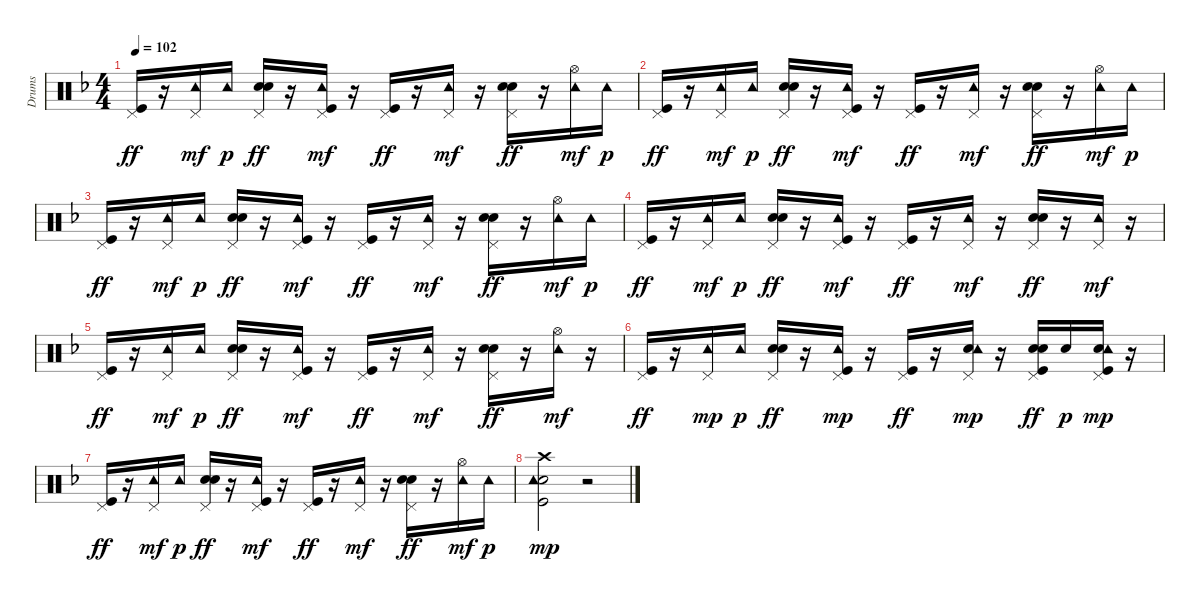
\track ("Drums   " "Drums   ") {instrument percussion}
\staff {score}
\articulation defaults
\ts (4 4)
\tempo 102
\clef neutral
\ks f
("Kick (hit)" "Pedal Hi-Hat (hit)").16{dy ff} r.16 ("Pedal Hi-Hat (hit)" "Tambourine (hit)").16{dy mf} "Tambourine (hit)".16{dy p} ("Electric Snare (hit)" "Pedal Hi-Hat (hit)" "Hand Clap (hit)").16{dy ff} r.16 ("Kick (hit)" "Pedal Hi-Hat (hit)" "Tambourine (hit)").16{dy mf} r.16 ("Kick (hit)" "Pedal Hi-Hat (hit)").16{dy ff} r.16 ("Pedal Hi-Hat (hit)" "Tambourine (hit)").16{dy mf} r.16 ("Electric Snare (hit)" "Pedal Hi-Hat (hit)" "Hand Clap (hit)").16{dy ff} r.16 ("Hi-Hat (open)" "Tambourine (hit)").16{dy mf} "Tambourine (hit)".16{dy p} |
("Kick (hit)" "Pedal Hi-Hat (hit)").16{dy ff} r.16 ("Pedal Hi-Hat (hit)" "Tambourine (hit)").16{dy mf} "Tambourine (hit)".16{dy p} ("Electric Snare (hit)" "Pedal Hi-Hat (hit)" "Hand Clap (hit)").16{dy ff} r.16 ("Kick (hit)" "Pedal Hi-Hat (hit)" "Tambourine (hit)").16{dy mf} r.16 ("Kick (hit)" "Pedal Hi-Hat (hit)").16{dy ff} r.16 ("Pedal Hi-Hat (hit)" "Tambourine (hit)").16{dy mf} r.16 ("Electric Snare (hit)" "Pedal Hi-Hat (hit)" "Hand Clap (hit)").16{dy ff} r.16 ("Hi-Hat (open)" "Tambourine (hit)").16{dy mf} "Tambourine (hit)".16{dy p} |
("Kick (hit)" "Pedal Hi-Hat (hit)").16{dy ff} r.16 ("Pedal Hi-Hat (hit)" "Tambourine (hit)").16{dy mf} "Tambourine (hit)".16{dy p} ("Electric Snare (hit)" "Pedal Hi-Hat (hit)" "Hand Clap (hit)").16{dy ff} r.16 ("Kick (hit)" "Pedal Hi-Hat (hit)" "Tambourine (hit)").16{dy mf} r.16 ("Kick (hit)" "Pedal Hi-Hat (hit)").16{dy ff} r.16 ("Pedal Hi-Hat (hit)" "Tambourine (hit)").16{dy mf} r.16 ("Electric Snare (hit)" "Pedal Hi-Hat (hit)" "Hand Clap (hit)").16{dy ff} r.16 ("Hi-Hat (open)" "Tambourine (hit)").16{dy mf} "Tambourine (hit)".16{dy p} |
("Kick (hit)" "Pedal Hi-Hat (hit)").16{dy ff} r.16 ("Pedal Hi-Hat (hit)" "Tambourine (hit)").16{dy mf} "Tambourine (hit)".16{dy p} ("Electric Snare (hit)" "Pedal Hi-Hat (hit)" "Hand Clap (hit)").16{dy ff} r.16 ("Kick (hit)" "Pedal Hi-Hat (hit)" "Tambourine (hit)").16{dy mf} r.16 ("Kick (hit)" "Pedal Hi-Hat (hit)").16{dy ff} r.16 ("Pedal Hi-Hat (hit)" "Tambourine (hit)").16{dy mf} r.16 ("Electric Snare (hit)" "Pedal Hi-Hat (hit)" "Hand Clap (hit)").16{dy ff} r.16 ("Pedal Hi-Hat (hit)" "Tambourine (hit)").16{dy mf} r.16 |
("Kick (hit)" "Pedal Hi-Hat (hit)").16{dy ff} r.16 ("Pedal Hi-Hat (hit)" "Tambourine (hit)").16{dy mf} "Tambourine (hit)".16{dy p} ("Electric Snare (hit)" "Pedal Hi-Hat (hit)" "Hand Clap (hit)").16{dy ff} r.16 ("Kick (hit)" "Pedal Hi-Hat (hit)" "Tambourine (hit)").16{dy mf} r.16 ("Kick (hit)" "Pedal Hi-Hat (hit)").16{dy ff} r.16 ("Pedal Hi-Hat (hit)" "Tambourine (hit)").16{dy mf} r.16 ("Electric Snare (hit)" "Pedal Hi-Hat (hit)" "Hand Clap (hit)").16{dy ff} r.16 ("Hi-Hat (open)" "Tambourine (hit)").16{dy mf} r.16 |
("Kick (hit)" "Pedal Hi-Hat (hit)").16{dy ff} r.16 ("Pedal Hi-Hat (hit)" "Tambourine (hit)").16{dy mp} "Tambourine (hit)".16{dy p} ("Electric Snare (hit)" "Pedal Hi-Hat (hit)" "Hand Clap (hit)").16{dy ff} r.16 ("Kick (hit)" "Pedal Hi-Hat (hit)" "Tambourine (hit)").16{dy mp} r.16 ("Kick (hit)" "Pedal Hi-Hat (hit)").16{dy ff} r.16 ("Electric Snare (hit)" "Pedal Hi-Hat (hit)" "Tambourine (hit)").16{dy mp} r.16 ("Kick (hit)" "Electric Snare (hit)" "Pedal Hi-Hat (hit)" "Hand Clap (hit)").16{dy ff} "Electric Snare (hit)".16{dy p} ("Kick (hit)" "Electric Snare (hit)" "Pedal Hi-Hat (hit)" "Tambourine (hit)").16{dy mp} r.16 |
("Kick (hit)" "Pedal Hi-Hat (hit)").16{dy ff} r.16 ("Pedal Hi-Hat (hit)" "Tambourine (hit)").16{dy mf} "Tambourine (hit)".16{dy p} ("Electric Snare (hit)" "Pedal Hi-Hat (hit)" "Hand Clap (hit)").16{dy ff} r.16 ("Kick (hit)" "Pedal Hi-Hat (hit)" "Tambourine (hit)").16{dy mf} r.16 ("Kick (hit)" "Pedal Hi-Hat (hit)").16{dy ff} r.16 ("Pedal Hi-Hat (hit)" "Tambourine (hit)").16{dy mf} r.16 ("Electric Snare (hit)" "Pedal Hi-Hat (hit)" "Hand Clap (hit)").16{dy ff} r.16 ("Hi-Hat (open)" "Tambourine (hit)").16{dy mf} "Tambourine (hit)".16{dy p} |
("Kick (hit)" "Crash high (hit)" "Electric Snare (hit)" "Tambourine (hit)").2{dy mp} r.2
